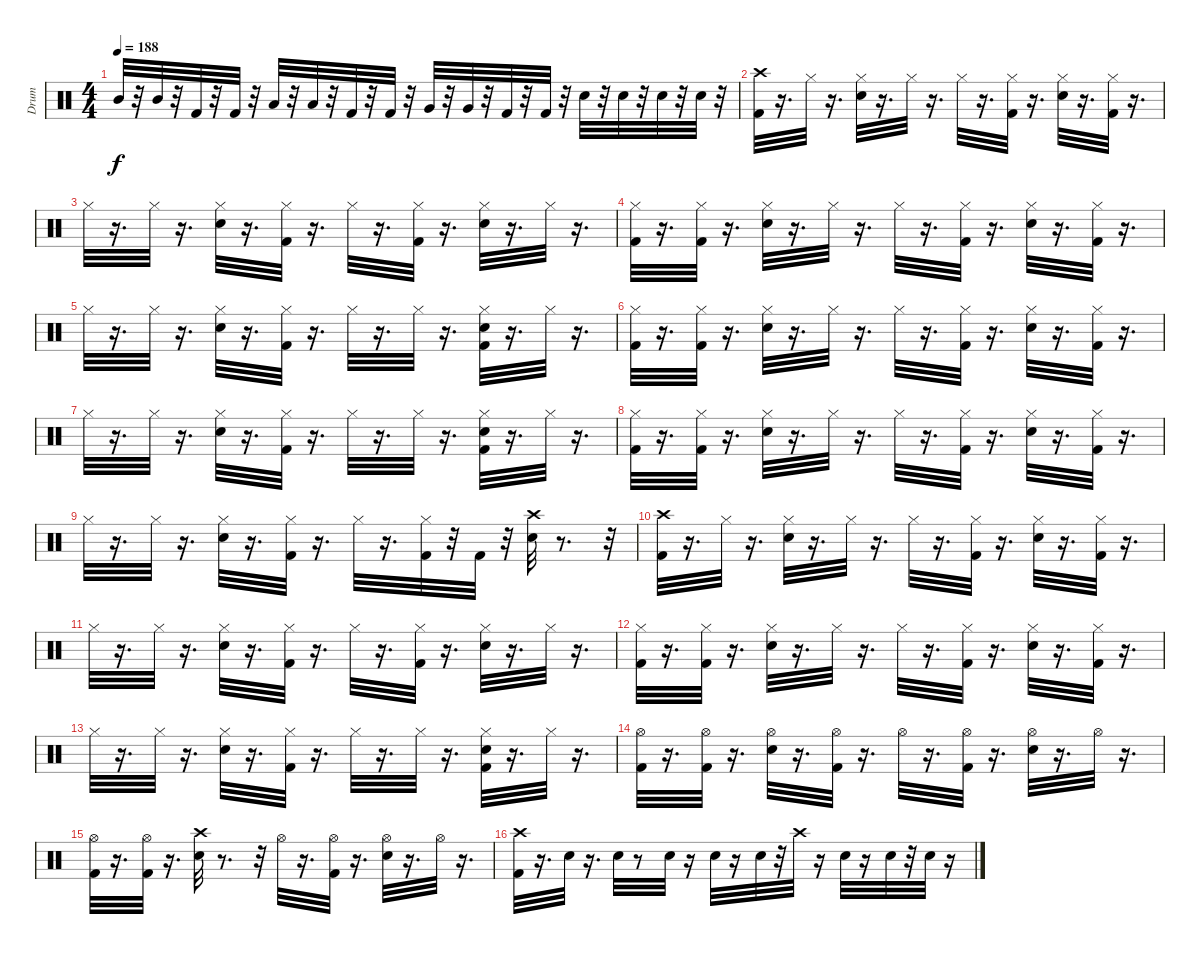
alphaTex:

\track ("Drum" "Drum") {instrument percussion}
\staff {score}
\articulation defaults
\ts (4 4)
\tempo 188
\clef neutral
\ks c "Mid Tom (hit)".32{dy f}
r.32 "Mid Tom (hit)".32 r.32 "Kick (hit) 2".32 r.32 "Kick (hit) 2".32 r.32 "Low Tom (hit)".32 r.32 "Low Tom (hit)".32 r.32 "Kick (hit) 2".32 r.32 "Kick (hit) 2".32 r.32 "Very Low Tom (hit)".32 r.32 "Very Low Tom (hit)".32 r.32 "Kick (hit) 2".32 r.32 "Kick (hit) 2".32 r.32 "Snare (hit) 2".32 r.32 "Snare (hit) 2".32 r.32 "Snare (hit) 2".32 r.32 "Snare (hit) 2".32 r.32 |
("Crash high (hit)" "Kick (hit) 2").32 r.16{d} "Hi-Hat (closed)".32 r.16{d} ("Hi-Hat (closed)" "Snare (hit) 2").32 r.16{d} "Hi-Hat (closed)".32 r.16{d} "Hi-Hat (closed)".32 r.16{d} ("Hi-Hat (closed)" "Kick (hit) 2").32 r.16{d} ("Hi-Hat (closed)" "Snare (hit) 2").32 r.16{d} ("Hi-Hat (closed)" "Kick (hit) 2").32 r.16{d} |
"Hi-Hat (closed)".32 r.16{d} "Hi-Hat (closed)".32 r.16{d} ("Hi-Hat (closed)" "Snare (hit) 2").32 r.16{d} ("Hi-Hat (closed)" "Kick (hit) 2").32 r.16{d} "Hi-Hat (closed)".32 r.16{d} ("Hi-Hat (closed)" "Kick (hit) 2").32 r.16{d} ("Hi-Hat (closed)" "Snare (hit) 2").32 r.16{d} "Hi-Hat (closed)".32 r.16{d} |
("Hi-Hat (closed)" "Kick (hit) 2").32 r.16{d} ("Hi-Hat (closed)" "Kick (hit) 2").32 r.16{d} ("Hi-Hat (closed)" "Snare (hit) 2").32 r.16{d} "Hi-Hat (closed)".32 r.16{d} "Hi-Hat (closed)".32 r.16{d} ("Hi-Hat (closed)" "Kick (hit) 2").32 r.16{d} ("Hi-Hat (closed)" "Snare (hit) 2").32 r.16{d} ("Hi-Hat (closed)" "Kick (hit) 2").32 r.16{d} |
"Hi-Hat (closed)".32 r.16{d} "Hi-Hat (closed)".32 r.16{d} ("Hi-Hat (closed)" "Snare (hit) 2").32 r.16{d} ("Hi-Hat (closed)" "Kick (hit) 2").32 r.16{d} "Hi-Hat (closed)".32 r.16{d} "Hi-Hat (closed)".32 r.16{d} ("Hi-Hat (closed)" "Snare (hit) 2" "Kick (hit) 2").32 r.16{d} "Hi-Hat (closed)".32 r.16{d} |
("Hi-Hat (closed)" "Kick (hit) 2").32 r.16{d} ("Hi-Hat (closed)" "Kick (hit) 2").32 r.16{d} ("Hi-Hat (closed)" "Snare (hit) 2").32 r.16{d} "Hi-Hat (closed)".32 r.16{d} "Hi-Hat (closed)".32 r.16{d} ("Hi-Hat (closed)" "Kick (hit) 2").32 r.16{d} ("Hi-Hat (closed)" "Snare (hit) 2").32 r.16{d} ("Hi-Hat (closed)" "Kick (hit) 2").32 r.16{d} |
"Hi-Hat (closed)".32 r.16{d} "Hi-Hat (closed)".32 r.16{d} ("Hi-Hat (closed)" "Snare (hit) 2").32 r.16{d} ("Hi-Hat (closed)" "Kick (hit) 2").32 r.16{d} "Hi-Hat (closed)".32 r.16{d} "Hi-Hat (closed)".32 r.16{d} ("Hi-Hat (closed)" "Snare (hit) 2" "Kick (hit) 2").32 r.16{d} "Hi-Hat (closed)".32 r.16{d} |
("Hi-Hat (closed)" "Kick (hit) 2").32 r.16{d} ("Hi-Hat (closed)" "Kick (hit) 2").32 r.16{d} ("Hi-Hat (closed)" "Snare (hit) 2").32 r.16{d} "Hi-Hat (closed)".32 r.16{d} "Hi-Hat (closed)".32 r.16{d} ("Hi-Hat (closed)" "Kick (hit) 2").32 r.16{d} ("Hi-Hat (closed)" "Snare (hit) 2").32 r.16{d} ("Hi-Hat (closed)" "Kick (hit) 2").32 r.16{d} |
"Hi-Hat (closed)".32 r.16{d} "Hi-Hat (closed)".32 r.16{d} ("Hi-Hat (closed)" "Snare (hit) 2").32 r.16{d} ("Hi-Hat (closed)" "Kick (hit) 2").32 r.16{d} "Hi-Hat (closed)".32 r.16{d} ("Hi-Hat (closed)" "Kick (hit) 2").32 r.32 "Kick (hit) 2".32 r.32 ("Crash high (hit)" "Snare (hit) 2").32 r.8{d} r.32 |
("Crash high (hit)" "Kick (hit) 2").32 r.16{d} "Hi-Hat (closed)".32 r.16{d} ("Hi-Hat (closed)" "Snare (hit) 2").32 r.16{d} "Hi-Hat (closed)".32 r.16{d} "Hi-Hat (closed)".32 r.16{d} ("Hi-Hat (closed)" "Kick (hit) 2").32 r.16{d} ("Hi-Hat (closed)" "Snare (hit) 2").32 r.16{d} ("Hi-Hat (closed)" "Kick (hit) 2").32 r.16{d} |
"Hi-Hat (closed)".32 r.16{d} "Hi-Hat (closed)".32 r.16{d} ("Hi-Hat (closed)" "Snare (hit) 2").32 r.16{d} ("Hi-Hat (closed)" "Kick (hit) 2").32 r.16{d} "Hi-Hat (closed)".32 r.16{d} ("Hi-Hat (closed)" "Kick (hit) 2").32 r.16{d} ("Hi-Hat (closed)" "Snare (hit) 2").32 r.16{d} "Hi-Hat (closed)".32 r.16{d} |
("Hi-Hat (closed)" "Kick (hit) 2").32 r.16{d} ("Hi-Hat (closed)" "Kick (hit) 2").32 r.16{d} ("Hi-Hat (closed)" "Snare (hit) 2").32 r.16{d} "Hi-Hat (closed)".32 r.16{d} "Hi-Hat (closed)".32 r.16{d} ("Hi-Hat (closed)" "Kick (hit) 2").32 r.16{d} ("Hi-Hat (closed)" "Snare (hit) 2").32 r.16{d} ("Hi-Hat (closed)" "Kick (hit) 2").32 r.16{d} |
"Hi-Hat (closed)".32 r.16{d} "Hi-Hat (closed)".32 r.16{d} ("Hi-Hat (closed)" "Snare (hit) 2").32 r.16{d} ("Hi-Hat (closed)" "Kick (hit) 2").32 r.16{d} "Hi-Hat (closed)".32 r.16{d} "Hi-Hat (closed)".32 r.16{d} ("Hi-Hat (closed)" "Snare (hit) 2" "Kick (hit) 2").32 r.16{d} "Hi-Hat (closed)".32 r.16{d} |
("Hi-Hat (open)" "Kick (hit) 2").32 r.16{d} ("Hi-Hat (open)" "Kick (hit) 2").32 r.16{d} ("Hi-Hat (open)" "Snare (hit) 2").32 r.16{d} ("Hi-Hat (open)" "Kick (hit) 2").32 r.16{d} "Hi-Hat (open)".32 r.16{d} ("Hi-Hat (open)" "Kick (hit) 2").32 r.16{d} ("Hi-Hat (open)" "Snare (hit) 2").32 r.16{d} "Hi-Hat (open)".32 r.16{d} |
("Hi-Hat (open)" "Kick (hit) 2").32 r.16{d} ("Hi-Hat (open)" "Kick (hit) 2").32 r.16{d} ("Crash high (hit)" "Snare (hit) 2").32 r.8{d} r.32 "Hi-Hat (open)".32 r.16{d} ("Hi-Hat (open)" "Kick (hit) 2").32 r.16{d} ("Hi-Hat (open)" "Snare (hit) 2").32 r.16{d} "Hi-Hat (open)".32 r.16{d} |
("Crash high (hit)" "Kick (hit) 2").32 r.16{d} "Snare (hit) 2".32 r.16{d} "Snare (hit) 2".32 r.8 "Snare (hit) 2".32 r.16 "Snare (hit) 2".32 r.16 "Snare (hit) 2".32 r.32 "Crash high (hit)".32 r.16 "Snare (hit) 2".32 r.16 "Snare (hit) 2".32 r.32 "Snare (hit) 2".32 r.16
